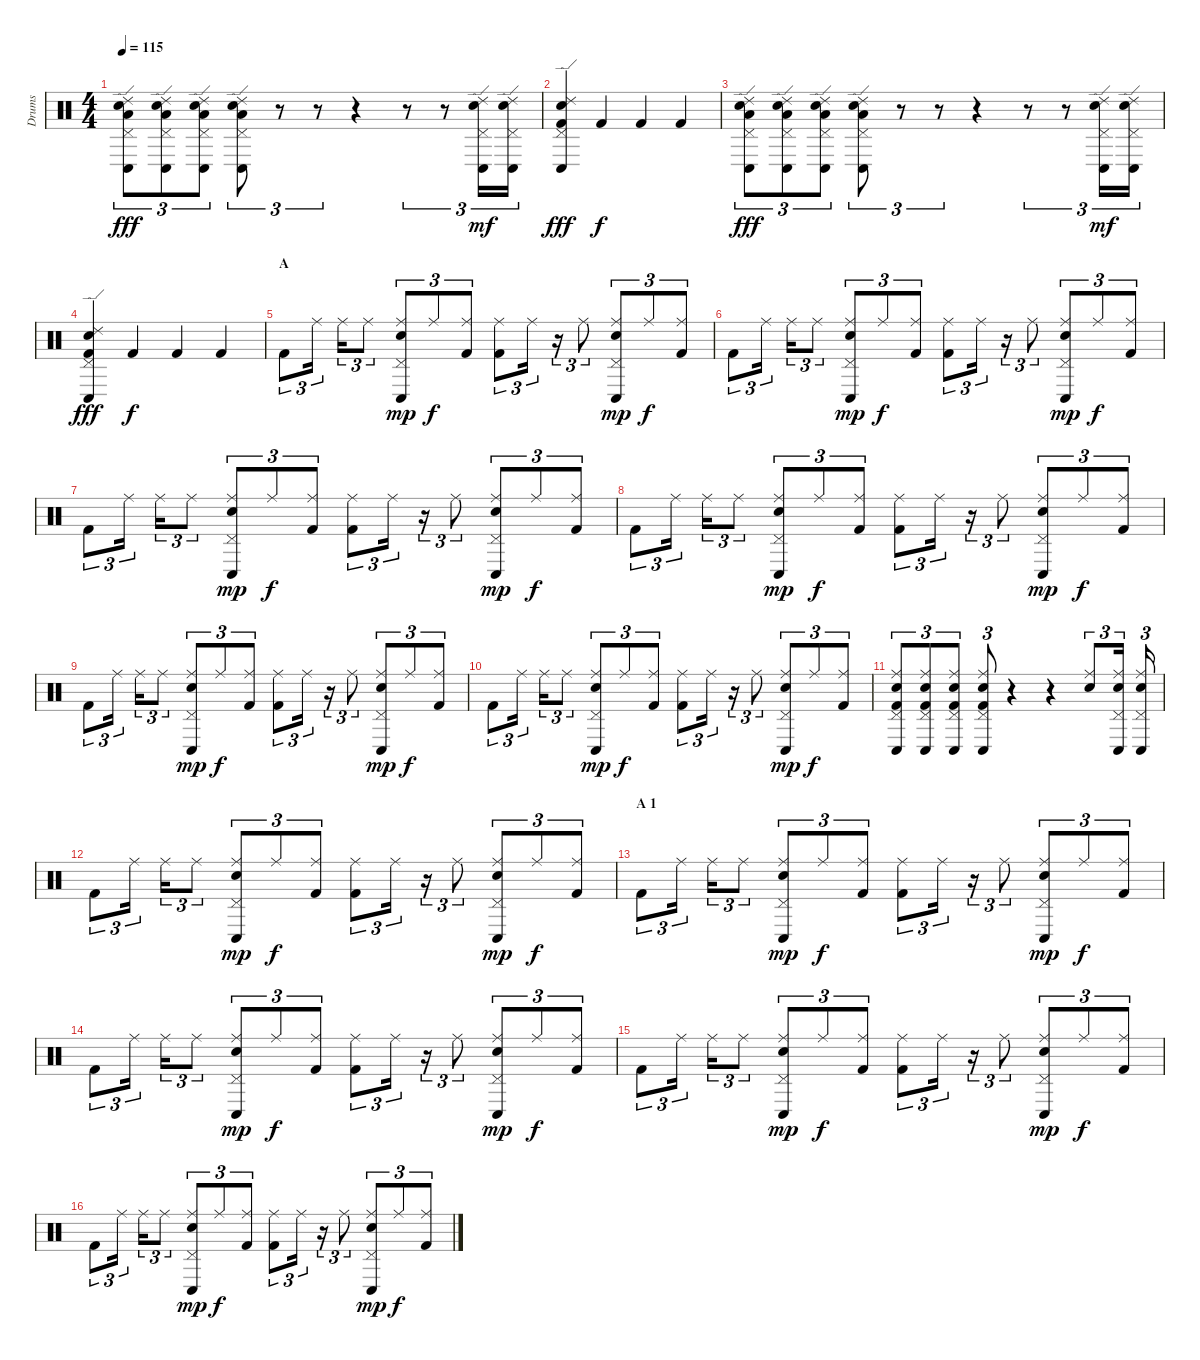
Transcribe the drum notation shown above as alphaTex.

\track ("Drums" "Drums") {instrument percussion}
\staff {score}
\articulation defaults
\ts (4 4)
\tempo 115
\clef neutral
\ks c
("Ride (edge) 2" "Pedal Hi-Hat (hit)" "Conga low (hit)" "Snare (hit) 2" "Low Floor Tom (hit)").8{tu (3 2) dy fff} ("Ride (edge) 2" "Pedal Hi-Hat (hit)" "Conga low (hit)" "Snare (hit) 2" "Low Floor Tom (hit)").8{tu (3 2)} ("Ride (edge) 2" "Pedal Hi-Hat (hit)" "Conga low (hit)" "Snare (hit) 2" "Low Floor Tom (hit)").8{tu (3 2)} ("Ride (edge) 2" "Pedal Hi-Hat (hit)" "Conga low (hit)" "Snare (hit) 2" "Low Floor Tom (hit)").8{tu (3 2)} r.8{tu (3 2)} r.8{tu (3 2)} r.4 r.8{tu (3 2)} r.8{tu (3 2)} ("Ride (edge) 2" "Pedal Hi-Hat (hit)" "Conga low (hit)" "Electric Snare (hit)").16{tu (3 2) dy mf} ("Ride (edge) 2" "Pedal Hi-Hat (hit)" "Conga low (hit)" "Electric Snare (hit)").16{tu (3 2)} |
("Ride (edge) 2" "Pedal Hi-Hat (hit)" "Conga low (hit)" "Electric Snare (hit)" "Kick (hit) 2").4{dy fff} "Kick (hit) 2".4{dy f} "Kick (hit) 2".4 "Kick (hit) 2".4 |
("Ride (edge) 2" "Pedal Hi-Hat (hit)" "Conga low (hit)" "Snare (hit) 2" "Low Floor Tom (hit)").8{tu (3 2) dy fff} ("Ride (edge) 2" "Pedal Hi-Hat (hit)" "Conga low (hit)" "Snare (hit) 2" "Low Floor Tom (hit)").8{tu (3 2)} ("Ride (edge) 2" "Pedal Hi-Hat (hit)" "Conga low (hit)" "Snare (hit) 2" "Low Floor Tom (hit)").8{tu (3 2)} ("Ride (edge) 2" "Pedal Hi-Hat (hit)" "Conga low (hit)" "Snare (hit) 2" "Low Floor Tom (hit)").8{tu (3 2)} r.8{tu (3 2)} r.8{tu (3 2)} r.4 r.8{tu (3 2)} r.8{tu (3 2)} ("Ride (edge) 2" "Pedal Hi-Hat (hit)" "Conga low (hit)" "Electric Snare (hit)").16{tu (3 2) dy mf} ("Ride (edge) 2" "Pedal Hi-Hat (hit)" "Conga low (hit)" "Electric Snare (hit)").16{tu (3 2)} |
("Ride (edge) 2" "Pedal Hi-Hat (hit)" "Conga low (hit)" "Electric Snare (hit)" "Kick (hit) 2").4{dy fff} "Kick (hit) 2".4{dy f} "Kick (hit) 2".4 "Kick (hit) 2".4 |
\section ("" "A")
"Kick (hit) 2".8{tu (3 2)} "Ride (middle)".16{tu (3 2)} "Ride (middle)".16{tu (3 2)} "Ride (middle)".8{tu (3 2)} ("Ride (middle)" "Pedal Hi-Hat (hit)" "Conga low (hit)" "Electric Snare (hit)").8{tu (3 2) dy mp} "Ride (middle)".8{tu (3 2) dy f} ("Ride (middle)" "Kick (hit) 2").8{tu (3 2)} ("Ride (middle)" "Kick (hit) 2").8{tu (3 2)} "Ride (middle)".16{tu (3 2)} r.16{tu (3 2)} "Ride (middle)".8{tu (3 2)} ("Ride (middle)" "Pedal Hi-Hat (hit)" "Conga low (hit)" "Electric Snare (hit)").8{tu (3 2) dy mp} "Ride (middle)".8{tu (3 2) dy f} ("Ride (middle)" "Kick (hit) 2").8{tu (3 2)} |
"Kick (hit) 2".8{tu (3 2)} "Ride (middle)".16{tu (3 2)} "Ride (middle)".16{tu (3 2)} "Ride (middle)".8{tu (3 2)} ("Ride (middle)" "Pedal Hi-Hat (hit)" "Conga low (hit)" "Electric Snare (hit)").8{tu (3 2) dy mp} "Ride (middle)".8{tu (3 2) dy f} ("Ride (middle)" "Kick (hit) 2").8{tu (3 2)} ("Ride (middle)" "Kick (hit) 2").8{tu (3 2)} "Ride (middle)".16{tu (3 2)} r.16{tu (3 2)} "Ride (middle)".8{tu (3 2)} ("Ride (middle)" "Pedal Hi-Hat (hit)" "Conga low (hit)" "Electric Snare (hit)").8{tu (3 2) dy mp} "Ride (middle)".8{tu (3 2) dy f} ("Ride (middle)" "Kick (hit) 2").8{tu (3 2)} |
"Kick (hit) 2".8{tu (3 2)} "Ride (middle)".16{tu (3 2)} "Ride (middle)".16{tu (3 2)} "Ride (middle)".8{tu (3 2)} ("Ride (middle)" "Pedal Hi-Hat (hit)" "Conga low (hit)" "Electric Snare (hit)").8{tu (3 2) dy mp} "Ride (middle)".8{tu (3 2) dy f} ("Ride (middle)" "Kick (hit) 2").8{tu (3 2)} ("Ride (middle)" "Kick (hit) 2").8{tu (3 2)} "Ride (middle)".16{tu (3 2)} r.16{tu (3 2)} "Ride (middle)".8{tu (3 2)} ("Ride (middle)" "Pedal Hi-Hat (hit)" "Conga low (hit)" "Electric Snare (hit)").8{tu (3 2) dy mp} "Ride (middle)".8{tu (3 2) dy f} ("Ride (middle)" "Kick (hit) 2").8{tu (3 2)} |
"Kick (hit) 2".8{tu (3 2)} "Ride (middle)".16{tu (3 2)} "Ride (middle)".16{tu (3 2)} "Ride (middle)".8{tu (3 2)} ("Ride (middle)" "Pedal Hi-Hat (hit)" "Conga low (hit)" "Electric Snare (hit)").8{tu (3 2) dy mp} "Ride (middle)".8{tu (3 2) dy f} ("Ride (middle)" "Kick (hit) 2").8{tu (3 2)} ("Ride (middle)" "Kick (hit) 2").8{tu (3 2)} "Ride (middle)".16{tu (3 2)} r.16{tu (3 2)} "Ride (middle)".8{tu (3 2)} ("Ride (middle)" "Pedal Hi-Hat (hit)" "Conga low (hit)" "Electric Snare (hit)").8{tu (3 2) dy mp} "Ride (middle)".8{tu (3 2) dy f} ("Ride (middle)" "Kick (hit) 2").8{tu (3 2)} |
"Kick (hit) 2".8{tu (3 2)} "Ride (middle)".16{tu (3 2)} "Ride (middle)".16{tu (3 2)} "Ride (middle)".8{tu (3 2)} ("Ride (middle)" "Pedal Hi-Hat (hit)" "Conga low (hit)" "Electric Snare (hit)").8{tu (3 2) dy mp} "Ride (middle)".8{tu (3 2) dy f} ("Ride (middle)" "Kick (hit) 2").8{tu (3 2)} ("Ride (middle)" "Kick (hit) 2").8{tu (3 2)} "Ride (middle)".16{tu (3 2)} r.16{tu (3 2)} "Ride (middle)".8{tu (3 2)} ("Ride (middle)" "Pedal Hi-Hat (hit)" "Conga low (hit)" "Electric Snare (hit)").8{tu (3 2) dy mp} "Ride (middle)".8{tu (3 2) dy f} ("Ride (middle)" "Kick (hit) 2").8{tu (3 2)} |
"Kick (hit) 2".8{tu (3 2)} "Ride (middle)".16{tu (3 2)} "Ride (middle)".16{tu (3 2)} "Ride (middle)".8{tu (3 2)} ("Ride (middle)" "Pedal Hi-Hat (hit)" "Conga low (hit)" "Electric Snare (hit)").8{tu (3 2) dy mp} "Ride (middle)".8{tu (3 2) dy f} ("Ride (middle)" "Kick (hit) 2").8{tu (3 2)} ("Ride (middle)" "Kick (hit) 2").8{tu (3 2)} "Ride (middle)".16{tu (3 2)} r.16{tu (3 2)} "Ride (middle)".8{tu (3 2)} ("Ride (middle)" "Pedal Hi-Hat (hit)" "Conga low (hit)" "Electric Snare (hit)").8{tu (3 2) dy mp} "Ride (middle)".8{tu (3 2) dy f} ("Ride (middle)" "Kick (hit) 2").8{tu (3 2)} |
("Ride (middle)" "Pedal Hi-Hat (hit)" "Conga low (hit)" "Electric Snare (hit)" "Kick (hit) 2").8{tu (3 2)} ("Ride (middle)" "Pedal Hi-Hat (hit)" "Conga low (hit)" "Electric Snare (hit)" "Kick (hit) 2").8{tu (3 2)} ("Ride (middle)" "Pedal Hi-Hat (hit)" "Conga low (hit)" "Electric Snare (hit)" "Kick (hit) 2").8{tu (3 2)} ("Ride (middle)" "Pedal Hi-Hat (hit)" "Conga low (hit)" "Electric Snare (hit)" "Kick (hit) 2").8{tu (3 2)} r.4 r.4 ("Ride (middle)" "Electric Snare (hit)").8{tu (3 2)} ("Ride (middle)" "Pedal Hi-Hat (hit)" "Conga low (hit)" "Electric Snare (hit)").16{tu (3 2)} ("Ride (middle)" "Pedal Hi-Hat (hit)" "Conga low (hit)" "Electric Snare (hit)").16{tu (3 2)} |
"Kick (hit) 2".8{tu (3 2)} "Ride (middle)".16{tu (3 2)} "Ride (middle)".16{tu (3 2)} "Ride (middle)".8{tu (3 2)} ("Ride (middle)" "Pedal Hi-Hat (hit)" "Conga low (hit)" "Electric Snare (hit)").8{tu (3 2) dy mp} "Ride (middle)".8{tu (3 2) dy f} ("Ride (middle)" "Kick (hit) 2").8{tu (3 2)} ("Ride (middle)" "Kick (hit) 2").8{tu (3 2)} "Ride (middle)".16{tu (3 2)} r.16{tu (3 2)} "Ride (middle)".8{tu (3 2)} ("Ride (middle)" "Pedal Hi-Hat (hit)" "Conga low (hit)" "Electric Snare (hit)").8{tu (3 2) dy mp} "Ride (middle)".8{tu (3 2) dy f} ("Ride (middle)" "Kick (hit) 2").8{tu (3 2)} |
\section ("" "A 1")
"Kick (hit) 2".8{tu (3 2)} "Ride (middle)".16{tu (3 2)} "Ride (middle)".16{tu (3 2)} "Ride (middle)".8{tu (3 2)} ("Ride (middle)" "Pedal Hi-Hat (hit)" "Conga low (hit)" "Electric Snare (hit)").8{tu (3 2) dy mp} "Ride (middle)".8{tu (3 2) dy f} ("Ride (middle)" "Kick (hit) 2").8{tu (3 2)} ("Ride (middle)" "Kick (hit) 2").8{tu (3 2)} "Ride (middle)".16{tu (3 2)} r.16{tu (3 2)} "Ride (middle)".8{tu (3 2)} ("Ride (middle)" "Pedal Hi-Hat (hit)" "Conga low (hit)" "Electric Snare (hit)").8{tu (3 2) dy mp} "Ride (middle)".8{tu (3 2) dy f} ("Ride (middle)" "Kick (hit) 2").8{tu (3 2)} |
"Kick (hit) 2".8{tu (3 2)} "Ride (middle)".16{tu (3 2)} "Ride (middle)".16{tu (3 2)} "Ride (middle)".8{tu (3 2)} ("Ride (middle)" "Pedal Hi-Hat (hit)" "Conga low (hit)" "Electric Snare (hit)").8{tu (3 2) dy mp} "Ride (middle)".8{tu (3 2) dy f} ("Ride (middle)" "Kick (hit) 2").8{tu (3 2)} ("Ride (middle)" "Kick (hit) 2").8{tu (3 2)} "Ride (middle)".16{tu (3 2)} r.16{tu (3 2)} "Ride (middle)".8{tu (3 2)} ("Ride (middle)" "Pedal Hi-Hat (hit)" "Conga low (hit)" "Electric Snare (hit)").8{tu (3 2) dy mp} "Ride (middle)".8{tu (3 2) dy f} ("Ride (middle)" "Kick (hit) 2").8{tu (3 2)} |
"Kick (hit) 2".8{tu (3 2)} "Ride (middle)".16{tu (3 2)} "Ride (middle)".16{tu (3 2)} "Ride (middle)".8{tu (3 2)} ("Ride (middle)" "Pedal Hi-Hat (hit)" "Conga low (hit)" "Electric Snare (hit)").8{tu (3 2) dy mp} "Ride (middle)".8{tu (3 2) dy f} ("Ride (middle)" "Kick (hit) 2").8{tu (3 2)} ("Ride (middle)" "Kick (hit) 2").8{tu (3 2)} "Ride (middle)".16{tu (3 2)} r.16{tu (3 2)} "Ride (middle)".8{tu (3 2)} ("Ride (middle)" "Pedal Hi-Hat (hit)" "Conga low (hit)" "Electric Snare (hit)").8{tu (3 2) dy mp} "Ride (middle)".8{tu (3 2) dy f} ("Ride (middle)" "Kick (hit) 2").8{tu (3 2)} |
"Kick (hit) 2".8{tu (3 2)} "Ride (middle)".16{tu (3 2)} "Ride (middle)".16{tu (3 2)} "Ride (middle)".8{tu (3 2)} ("Ride (middle)" "Pedal Hi-Hat (hit)" "Conga low (hit)" "Electric Snare (hit)").8{tu (3 2) dy mp} "Ride (middle)".8{tu (3 2) dy f} ("Ride (middle)" "Kick (hit) 2").8{tu (3 2)} ("Ride (middle)" "Kick (hit) 2").8{tu (3 2)} "Ride (middle)".16{tu (3 2)} r.16{tu (3 2)} "Ride (middle)".8{tu (3 2)} ("Ride (middle)" "Pedal Hi-Hat (hit)" "Conga low (hit)" "Electric Snare (hit)").8{tu (3 2) dy mp} "Ride (middle)".8{tu (3 2) dy f} ("Ride (middle)" "Kick (hit) 2").8{tu (3 2)}
